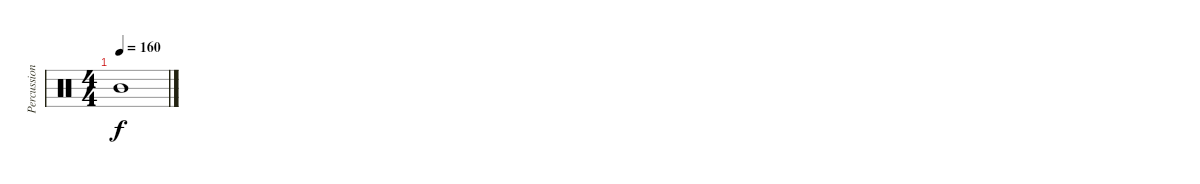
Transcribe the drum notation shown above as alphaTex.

\track ("Percussion" "Percussion") {instrument percussion}
\staff {score}
\articulation defaults
\ts (4 4)
\tempo 160
\clef neutral
\ks c "Mid Tom (hit)".1{dy f}
